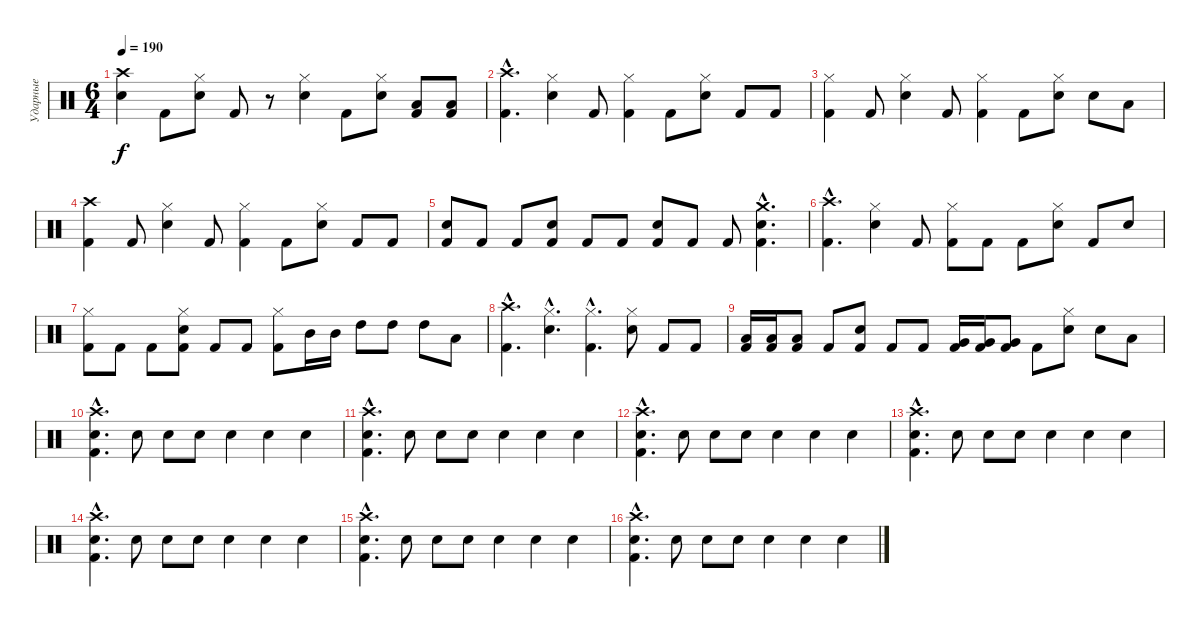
\track ("Ударные" "Ударные") {instrument percussion}
\staff {score}
\articulation defaults
\ts (6 4)
\tempo 190
\clef neutral
\ks c
("Crash high (hit)" "Electric Snare (hit)").4{dy f} "Kick (hit) 2".8 ("Hi-Hat (closed)" "Electric Snare (hit)").8 "Kick (hit) 2".8 r.8 ("Hi-Hat (closed)" "Electric Snare (hit)").4 "Kick (hit) 2".8 ("Hi-Hat (closed)" "Electric Snare (hit)").8 ("Low Tom (hit)" "Kick (hit) 2").8 ("Low Tom (hit)" "Kick (hit) 2").8 |
("Crash high (hit)"{hac} "Kick (hit) 2"{hac}).4{d} ("Hi-Hat (closed)" "Electric Snare (hit)").4 "Kick (hit) 2".8 ("Hi-Hat (closed)" "Kick (hit) 2").4 "Kick (hit) 2".8 ("Hi-Hat (closed)" "Electric Snare (hit)").8 "Kick (hit) 2".8 "Kick (hit) 2".8 |
("Hi-Hat (closed)" "Kick (hit) 2").4 "Kick (hit) 2".8 ("Hi-Hat (closed)" "Electric Snare (hit)").4 "Kick (hit) 2".8 ("Hi-Hat (closed)" "Kick (hit) 2").4 "Kick (hit) 2".8 ("Hi-Hat (closed)" "Electric Snare (hit)").8 "Electric Snare (hit)".8 "Low Tom (hit)".8 |
("Crash high (hit)" "Kick (hit) 2").4 "Kick (hit) 2".8 ("Hi-Hat (closed)" "Electric Snare (hit)").4 "Kick (hit) 2".8 ("Hi-Hat (closed)" "Kick (hit) 2").4 "Kick (hit) 2".8 ("Hi-Hat (closed)" "Electric Snare (hit)").8 "Kick (hit) 2".8 "Kick (hit) 2".8 |
("Electric Snare (hit)" "Kick (hit) 2").8 "Kick (hit) 2".8 "Kick (hit) 2".8 ("Electric Snare (hit)" "Kick (hit) 2").8 "Kick (hit) 2".8 "Kick (hit) 2".8 ("Electric Snare (hit)" "Kick (hit) 2").8 "Kick (hit) 2".8 "Kick (hit) 2".8 ("Crash medium (hit)"{hac} "Electric Snare (hit)"{hac} "Kick (hit) 2"{hac}).4{d} |
("Crash high (hit)"{hac} "Kick (hit) 2"{hac}).4{d} ("Hi-Hat (closed)" "Electric Snare (hit)").4 "Kick (hit) 2".8 ("Hi-Hat (closed)" "Kick (hit) 2").8 "Kick (hit) 2".8 "Kick (hit) 2".8 ("Hi-Hat (closed)" "Electric Snare (hit)").8 "Kick (hit) 2".8 "Electric Snare (hit)".8 |
("Hi-Hat (closed)" "Kick (hit) 2").8 "Kick (hit) 2".8 "Kick (hit) 2".8 ("Hi-Hat (closed)" "Electric Snare (hit)" "Kick (hit) 2").8 "Kick (hit) 2".8 "Kick (hit) 2".8 ("Hi-Hat (closed)" "Kick (hit) 2").8 "Mid Tom (hit)".16 "Mid Tom (hit)".16 "High Tom (hit)".8 "High Tom (hit)".8 "High Tom (hit)".8 "Low Tom (hit)".8 |
("Crash high (hit)"{hac} "Kick (hit) 2"{hac}).4{d} ("Hi-Hat (closed)"{hac} "Electric Snare (hit)"{hac}).4{d} ("Hi-Hat (closed)"{hac} "Kick (hit) 2"{hac}).4{d} ("Hi-Hat (closed)" "Electric Snare (hit)").8 "Kick (hit) 2".8 "Kick (hit) 2".8 |
("Low Tom (hit)" "Kick (hit) 2").16 ("Low Tom (hit)" "Kick (hit) 2").16 ("Low Tom (hit)" "Kick (hit) 2").8 "Kick (hit) 2".8 ("Electric Snare (hit)" "Kick (hit) 2").8 "Kick (hit) 2".8 "Kick (hit) 2".8 ("Very Low Tom (hit)" "Kick (hit) 2").16 ("Very Low Tom (hit)" "Kick (hit) 2").16 ("Very Low Tom (hit)" "Kick (hit) 2").8 "Kick (hit) 2".8 ("Hi-Hat (closed)" "Electric Snare (hit)").8 "Electric Snare (hit)".8 "Low Tom (hit)".8 |
("Crash high (hit)"{hac} "Electric Snare (hit)"{hac} "Kick (hit) 2"{hac}).4{d} "Electric Snare (hit)".8 "Electric Snare (hit)".8 "Electric Snare (hit)".8 "Electric Snare (hit)".4 "Electric Snare (hit)".4 "Electric Snare (hit)".4 |
("Crash high (hit)"{hac} "Electric Snare (hit)"{hac} "Kick (hit) 2"{hac}).4{d} "Electric Snare (hit)".8 "Electric Snare (hit)".8 "Electric Snare (hit)".8 "Electric Snare (hit)".4 "Electric Snare (hit)".4 "Electric Snare (hit)".4 |
("Crash high (hit)"{hac} "Electric Snare (hit)"{hac} "Kick (hit) 2"{hac}).4{d} "Electric Snare (hit)".8 "Electric Snare (hit)".8 "Electric Snare (hit)".8 "Electric Snare (hit)".4 "Electric Snare (hit)".4 "Electric Snare (hit)".4 |
("Crash high (hit)"{hac} "Electric Snare (hit)"{hac} "Kick (hit) 2"{hac}).4{d} "Electric Snare (hit)".8 "Electric Snare (hit)".8 "Electric Snare (hit)".8 "Electric Snare (hit)".4 "Electric Snare (hit)".4 "Electric Snare (hit)".4 |
("Crash high (hit)"{hac} "Electric Snare (hit)"{hac} "Kick (hit) 2"{hac}).4{d} "Electric Snare (hit)".8 "Electric Snare (hit)".8 "Electric Snare (hit)".8 "Electric Snare (hit)".4 "Electric Snare (hit)".4 "Electric Snare (hit)".4 |
("Crash high (hit)"{hac} "Electric Snare (hit)"{hac} "Kick (hit) 2"{hac}).4{d} "Electric Snare (hit)".8 "Electric Snare (hit)".8 "Electric Snare (hit)".8 "Electric Snare (hit)".4 "Electric Snare (hit)".4 "Electric Snare (hit)".4 |
("Crash high (hit)"{hac} "Electric Snare (hit)"{hac} "Kick (hit) 2"{hac}).4{d} "Electric Snare (hit)".8 "Electric Snare (hit)".8 "Electric Snare (hit)".8 "Electric Snare (hit)".4 "Electric Snare (hit)".4 "Electric Snare (hit)".4
